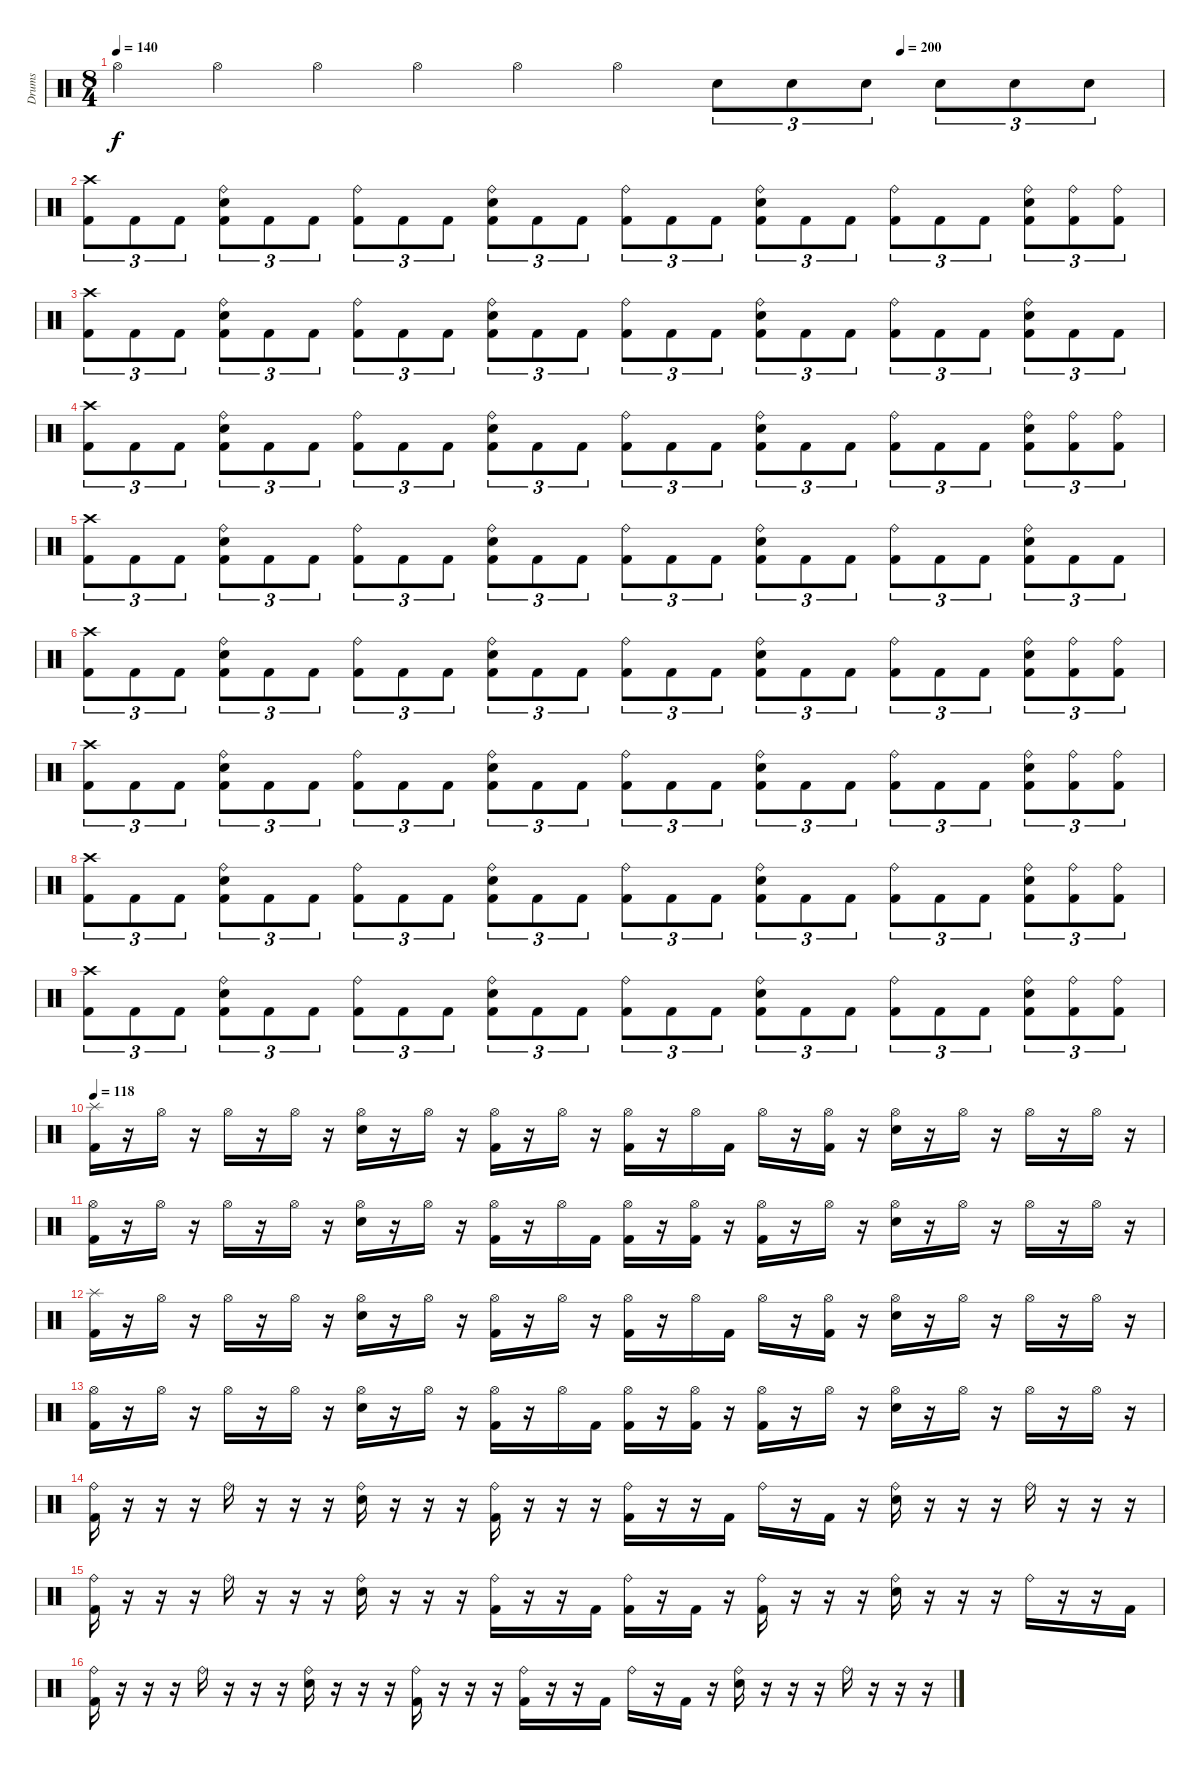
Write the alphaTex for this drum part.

\track ("Drums" "Drums") {instrument percussion}
\staff {score}
\articulation defaults
\ts (8 4)
\tempo 140
\tempo (200 0.75)
\clef neutral
\ks c "Hi-Hat (open)".4{dy f} "Hi-Hat (open)".4 "Hi-Hat (open)".4 "Hi-Hat (open)".4 "Hi-Hat (open)".4 "Hi-Hat (open)".4 "Electric Snare (hit)".8{tu (3 2)} "Electric Snare (hit)".8{tu (3 2)} "Electric Snare (hit)".8{tu (3 2)} "Electric Snare (hit)".8{tu (3 2)} "Electric Snare (hit)".8{tu (3 2)} "Electric Snare (hit)".8{tu (3 2)}
|
("Crash high (hit)" "Kick (hit) 2").8{tu (3 2)} "Kick (hit) 2".8{tu (3 2)} "Kick (hit) 2".8{tu (3 2)} ("Ride (bell)" "Electric Snare (hit)" "Kick (hit) 2").8{tu (3 2)} "Kick (hit) 2".8{tu (3 2)} "Kick (hit) 2".8{tu (3 2)} ("Ride (bell)" "Kick (hit) 2").8{tu (3 2)} "Kick (hit) 2".8{tu (3 2)} "Kick (hit) 2".8{tu (3 2)} ("Ride (bell)" "Electric Snare (hit)" "Kick (hit) 2").8{tu (3 2)} "Kick (hit) 2".8{tu (3 2)} "Kick (hit) 2".8{tu (3 2)} ("Ride (bell)" "Kick (hit) 2").8{tu (3 2)} "Kick (hit) 2".8{tu (3 2)} "Kick (hit) 2".8{tu (3 2)} ("Ride (bell)" "Electric Snare (hit)" "Kick (hit) 2").8{tu (3 2)} "Kick (hit) 2".8{tu (3 2)} "Kick (hit) 2".8{tu (3 2)} ("Ride (bell)" "Kick (hit) 2").8{tu (3 2)} "Kick (hit) 2".8{tu (3 2)} "Kick (hit) 2".8{tu (3 2)} ("Ride (bell)" "Electric Snare (hit)" "Kick (hit) 2").8{tu (3 2)} ("Ride (bell)" "Kick (hit) 2").8{tu (3 2)} ("Ride (bell)" "Kick (hit) 2").8{tu (3 2)} |
("Crash high (hit)" "Kick (hit) 2").8{tu (3 2)} "Kick (hit) 2".8{tu (3 2)} "Kick (hit) 2".8{tu (3 2)} ("Ride (bell)" "Electric Snare (hit)" "Kick (hit) 2").8{tu (3 2)} "Kick (hit) 2".8{tu (3 2)} "Kick (hit) 2".8{tu (3 2)} ("Ride (bell)" "Kick (hit) 2").8{tu (3 2)} "Kick (hit) 2".8{tu (3 2)} "Kick (hit) 2".8{tu (3 2)} ("Ride (bell)" "Electric Snare (hit)" "Kick (hit) 2").8{tu (3 2)} "Kick (hit) 2".8{tu (3 2)} "Kick (hit) 2".8{tu (3 2)} ("Ride (bell)" "Kick (hit) 2").8{tu (3 2)} "Kick (hit) 2".8{tu (3 2)} "Kick (hit) 2".8{tu (3 2)} ("Ride (bell)" "Electric Snare (hit)" "Kick (hit) 2").8{tu (3 2)} "Kick (hit) 2".8{tu (3 2)} "Kick (hit) 2".8{tu (3 2)} ("Ride (bell)" "Kick (hit) 2").8{tu (3 2)} "Kick (hit) 2".8{tu (3 2)} "Kick (hit) 2".8{tu (3 2)} ("Ride (bell)" "Electric Snare (hit)" "Kick (hit) 2").8{tu (3 2)} "Kick (hit) 2".8{tu (3 2)} "Kick (hit) 2".8{tu (3 2)} |
("Crash high (hit)" "Kick (hit) 2").8{tu (3 2)} "Kick (hit) 2".8{tu (3 2)} "Kick (hit) 2".8{tu (3 2)} ("Ride (bell)" "Electric Snare (hit)" "Kick (hit) 2").8{tu (3 2)} "Kick (hit) 2".8{tu (3 2)} "Kick (hit) 2".8{tu (3 2)} ("Ride (bell)" "Kick (hit) 2").8{tu (3 2)} "Kick (hit) 2".8{tu (3 2)} "Kick (hit) 2".8{tu (3 2)} ("Ride (bell)" "Electric Snare (hit)" "Kick (hit) 2").8{tu (3 2)} "Kick (hit) 2".8{tu (3 2)} "Kick (hit) 2".8{tu (3 2)} ("Ride (bell)" "Kick (hit) 2").8{tu (3 2)} "Kick (hit) 2".8{tu (3 2)} "Kick (hit) 2".8{tu (3 2)} ("Ride (bell)" "Electric Snare (hit)" "Kick (hit) 2").8{tu (3 2)} "Kick (hit) 2".8{tu (3 2)} "Kick (hit) 2".8{tu (3 2)} ("Ride (bell)" "Kick (hit) 2").8{tu (3 2)} "Kick (hit) 2".8{tu (3 2)} "Kick (hit) 2".8{tu (3 2)} ("Ride (bell)" "Electric Snare (hit)" "Kick (hit) 2").8{tu (3 2)} ("Ride (bell)" "Kick (hit) 2").8{tu (3 2)} ("Ride (bell)" "Kick (hit) 2").8{tu (3 2)} |
("Crash high (hit)" "Kick (hit) 2").8{tu (3 2)} "Kick (hit) 2".8{tu (3 2)} "Kick (hit) 2".8{tu (3 2)} ("Ride (bell)" "Electric Snare (hit)" "Kick (hit) 2").8{tu (3 2)} "Kick (hit) 2".8{tu (3 2)} "Kick (hit) 2".8{tu (3 2)} ("Ride (bell)" "Kick (hit) 2").8{tu (3 2)} "Kick (hit) 2".8{tu (3 2)} "Kick (hit) 2".8{tu (3 2)} ("Ride (bell)" "Electric Snare (hit)" "Kick (hit) 2").8{tu (3 2)} "Kick (hit) 2".8{tu (3 2)} "Kick (hit) 2".8{tu (3 2)} ("Ride (bell)" "Kick (hit) 2").8{tu (3 2)} "Kick (hit) 2".8{tu (3 2)} "Kick (hit) 2".8{tu (3 2)} ("Ride (bell)" "Electric Snare (hit)" "Kick (hit) 2").8{tu (3 2)} "Kick (hit) 2".8{tu (3 2)} "Kick (hit) 2".8{tu (3 2)} ("Ride (bell)" "Kick (hit) 2").8{tu (3 2)} "Kick (hit) 2".8{tu (3 2)} "Kick (hit) 2".8{tu (3 2)} ("Ride (bell)" "Electric Snare (hit)" "Kick (hit) 2").8{tu (3 2)} "Kick (hit) 2".8{tu (3 2)} "Kick (hit) 2".8{tu (3 2)} |
("Crash high (hit)" "Kick (hit) 2").8{tu (3 2)} "Kick (hit) 2".8{tu (3 2)} "Kick (hit) 2".8{tu (3 2)} ("Ride (bell)" "Electric Snare (hit)" "Kick (hit) 2").8{tu (3 2)} "Kick (hit) 2".8{tu (3 2)} "Kick (hit) 2".8{tu (3 2)} ("Ride (bell)" "Kick (hit) 2").8{tu (3 2)} "Kick (hit) 2".8{tu (3 2)} "Kick (hit) 2".8{tu (3 2)} ("Ride (bell)" "Electric Snare (hit)" "Kick (hit) 2").8{tu (3 2)} "Kick (hit) 2".8{tu (3 2)} "Kick (hit) 2".8{tu (3 2)} ("Ride (bell)" "Kick (hit) 2").8{tu (3 2)} "Kick (hit) 2".8{tu (3 2)} "Kick (hit) 2".8{tu (3 2)} ("Ride (bell)" "Electric Snare (hit)" "Kick (hit) 2").8{tu (3 2)} "Kick (hit) 2".8{tu (3 2)} "Kick (hit) 2".8{tu (3 2)} ("Ride (bell)" "Kick (hit) 2").8{tu (3 2)} "Kick (hit) 2".8{tu (3 2)} "Kick (hit) 2".8{tu (3 2)} ("Ride (bell)" "Electric Snare (hit)" "Kick (hit) 2").8{tu (3 2)} ("Ride (bell)" "Kick (hit) 2").8{tu (3 2)} ("Ride (bell)" "Kick (hit) 2").8{tu (3 2)} |
("Crash high (hit)" "Kick (hit) 2").8{tu (3 2)} "Kick (hit) 2".8{tu (3 2)} "Kick (hit) 2".8{tu (3 2)} ("Ride (bell)" "Electric Snare (hit)" "Kick (hit) 2").8{tu (3 2)} "Kick (hit) 2".8{tu (3 2)} "Kick (hit) 2".8{tu (3 2)} ("Ride (bell)" "Kick (hit) 2").8{tu (3 2)} "Kick (hit) 2".8{tu (3 2)} "Kick (hit) 2".8{tu (3 2)} ("Ride (bell)" "Electric Snare (hit)" "Kick (hit) 2").8{tu (3 2)} "Kick (hit) 2".8{tu (3 2)} "Kick (hit) 2".8{tu (3 2)} ("Ride (bell)" "Kick (hit) 2").8{tu (3 2)} "Kick (hit) 2".8{tu (3 2)} "Kick (hit) 2".8{tu (3 2)} ("Ride (bell)" "Electric Snare (hit)" "Kick (hit) 2").8{tu (3 2)} "Kick (hit) 2".8{tu (3 2)} "Kick (hit) 2".8{tu (3 2)} ("Ride (bell)" "Kick (hit) 2").8{tu (3 2)} "Kick (hit) 2".8{tu (3 2)} "Kick (hit) 2".8{tu (3 2)} ("Ride (bell)" "Electric Snare (hit)" "Kick (hit) 2").8{tu (3 2)} ("Ride (bell)" "Kick (hit) 2").8{tu (3 2)} ("Ride (bell)" "Kick (hit) 2").8{tu (3 2)} |
("Crash high (hit)" "Kick (hit) 2").8{tu (3 2)} "Kick (hit) 2".8{tu (3 2)} "Kick (hit) 2".8{tu (3 2)} ("Ride (bell)" "Electric Snare (hit)" "Kick (hit) 2").8{tu (3 2)} "Kick (hit) 2".8{tu (3 2)} "Kick (hit) 2".8{tu (3 2)} ("Ride (bell)" "Kick (hit) 2").8{tu (3 2)} "Kick (hit) 2".8{tu (3 2)} "Kick (hit) 2".8{tu (3 2)} ("Ride (bell)" "Electric Snare (hit)" "Kick (hit) 2").8{tu (3 2)} "Kick (hit) 2".8{tu (3 2)} "Kick (hit) 2".8{tu (3 2)} ("Ride (bell)" "Kick (hit) 2").8{tu (3 2)} "Kick (hit) 2".8{tu (3 2)} "Kick (hit) 2".8{tu (3 2)} ("Ride (bell)" "Electric Snare (hit)" "Kick (hit) 2").8{tu (3 2)} "Kick (hit) 2".8{tu (3 2)} "Kick (hit) 2".8{tu (3 2)} ("Ride (bell)" "Kick (hit) 2").8{tu (3 2)} "Kick (hit) 2".8{tu (3 2)} "Kick (hit) 2".8{tu (3 2)} ("Ride (bell)" "Electric Snare (hit)" "Kick (hit) 2").8{tu (3 2)} ("Ride (bell)" "Kick (hit) 2").8{tu (3 2)} ("Ride (bell)" "Kick (hit) 2").8{tu (3 2)} |
("Crash high (hit)" "Kick (hit) 2").8{tu (3 2)} "Kick (hit) 2".8{tu (3 2)} "Kick (hit) 2".8{tu (3 2)} ("Ride (bell)" "Electric Snare (hit)" "Kick (hit) 2").8{tu (3 2)} "Kick (hit) 2".8{tu (3 2)} "Kick (hit) 2".8{tu (3 2)} ("Ride (bell)" "Kick (hit) 2").8{tu (3 2)} "Kick (hit) 2".8{tu (3 2)} "Kick (hit) 2".8{tu (3 2)} ("Ride (bell)" "Electric Snare (hit)" "Kick (hit) 2").8{tu (3 2)} "Kick (hit) 2".8{tu (3 2)} "Kick (hit) 2".8{tu (3 2)} ("Ride (bell)" "Kick (hit) 2").8{tu (3 2)} "Kick (hit) 2".8{tu (3 2)} "Kick (hit) 2".8{tu (3 2)} ("Ride (bell)" "Electric Snare (hit)" "Kick (hit) 2").8{tu (3 2)} "Kick (hit) 2".8{tu (3 2)} "Kick (hit) 2".8{tu (3 2)} ("Ride (bell)" "Kick (hit) 2").8{tu (3 2)} "Kick (hit) 2".8{tu (3 2)} "Kick (hit) 2".8{tu (3 2)} ("Ride (bell)" "Electric Snare (hit)" "Kick (hit) 2").8{tu (3 2)} ("Ride (bell)" "Kick (hit) 2").8{tu (3 2)} ("Ride (bell)" "Kick (hit) 2").8{tu (3 2)} |
\tempo 118
("Splash (hit)" "Kick (hit) 2").16 r.16 "Hi-Hat (open)".16 r.16 "Hi-Hat (open)".16 r.16 "Hi-Hat (open)".16 r.16 ("Hi-Hat (open)" "Electric Snare (hit)").16 r.16 "Hi-Hat (open)".16 r.16 ("Hi-Hat (open)" "Kick (hit) 2").16 r.16 "Hi-Hat (open)".16 r.16 ("Hi-Hat (open)" "Kick (hit) 2").16 r.16 "Hi-Hat (open)".16 "Kick (hit) 2".16 "Hi-Hat (open)".16 r.16 ("Hi-Hat (open)" "Kick (hit) 2").16 r.16 ("Hi-Hat (open)" "Electric Snare (hit)").16 r.16 "Hi-Hat (open)".16 r.16 "Hi-Hat (open)".16 r.16 "Hi-Hat (open)".16 r.16 |
("Hi-Hat (open)" "Kick (hit) 2").16 r.16 "Hi-Hat (open)".16 r.16 "Hi-Hat (open)".16 r.16 "Hi-Hat (open)".16 r.16 ("Hi-Hat (open)" "Electric Snare (hit)").16 r.16 "Hi-Hat (open)".16 r.16 ("Hi-Hat (open)" "Kick (hit) 2").16 r.16 "Hi-Hat (open)".16 "Kick (hit) 2".16 ("Hi-Hat (open)" "Kick (hit) 2").16 r.16 ("Hi-Hat (open)" "Kick (hit) 2").16 r.16 ("Hi-Hat (open)" "Kick (hit) 2").16 r.16 "Hi-Hat (open)".16 r.16 ("Hi-Hat (open)" "Electric Snare (hit)").16 r.16 "Hi-Hat (open)".16 r.16 "Hi-Hat (open)".16 r.16 "Hi-Hat (open)".16 r.16 |
("Splash (hit)" "Kick (hit) 2").16 r.16 "Hi-Hat (open)".16 r.16 "Hi-Hat (open)".16 r.16 "Hi-Hat (open)".16 r.16 ("Hi-Hat (open)" "Electric Snare (hit)").16 r.16 "Hi-Hat (open)".16 r.16 ("Hi-Hat (open)" "Kick (hit) 2").16 r.16 "Hi-Hat (open)".16 r.16 ("Hi-Hat (open)" "Kick (hit) 2").16 r.16 "Hi-Hat (open)".16 "Kick (hit) 2".16 "Hi-Hat (open)".16 r.16 ("Hi-Hat (open)" "Kick (hit) 2").16 r.16 ("Hi-Hat (open)" "Electric Snare (hit)").16 r.16 "Hi-Hat (open)".16 r.16 "Hi-Hat (open)".16 r.16 "Hi-Hat (open)".16 r.16 |
("Hi-Hat (open)" "Kick (hit) 2").16 r.16 "Hi-Hat (open)".16 r.16 "Hi-Hat (open)".16 r.16 "Hi-Hat (open)".16 r.16 ("Hi-Hat (open)" "Electric Snare (hit)").16 r.16 "Hi-Hat (open)".16 r.16 ("Hi-Hat (open)" "Kick (hit) 2").16 r.16 "Hi-Hat (open)".16 "Kick (hit) 2".16 ("Hi-Hat (open)" "Kick (hit) 2").16 r.16 ("Hi-Hat (open)" "Kick (hit) 2").16 r.16 ("Hi-Hat (open)" "Kick (hit) 2").16 r.16 "Hi-Hat (open)".16 r.16 ("Hi-Hat (open)" "Electric Snare (hit)").16 r.16 "Hi-Hat (open)".16 r.16 "Hi-Hat (open)".16 r.16 "Hi-Hat (open)".16 r.16 |
("Ride (bell)" "Kick (hit) 2").16 r.16 r.16 r.16 "Ride (bell)".16 r.16 r.16 r.16 ("Ride (bell)" "Electric Snare (hit)").16 r.16 r.16 r.16 ("Ride (bell)" "Kick (hit) 2").16 r.16 r.16 r.16 ("Ride (bell)" "Kick (hit) 2").16 r.16 r.16 "Kick (hit) 2".16 "Ride (bell)".16 r.16 "Kick (hit) 2".16 r.16 ("Ride (bell)" "Electric Snare (hit)").16 r.16 r.16 r.16 "Ride (bell)".16 r.16 r.16 r.16 |
("Ride (bell)" "Kick (hit) 2").16 r.16 r.16 r.16 "Ride (bell)".16 r.16 r.16 r.16 ("Ride (bell)" "Electric Snare (hit)").16 r.16 r.16 r.16 ("Ride (bell)" "Kick (hit) 2").16 r.16 r.16 "Kick (hit) 2".16 ("Ride (bell)" "Kick (hit) 2").16 r.16 "Kick (hit) 2".16 r.16 ("Ride (bell)" "Kick (hit) 2").16 r.16 r.16 r.16 ("Ride (bell)" "Electric Snare (hit)").16 r.16 r.16 r.16 "Ride (bell)".16 r.16 r.16 "Kick (hit) 2".16 |
("Ride (bell)" "Kick (hit) 2").16 r.16 r.16 r.16 "Ride (bell)".16 r.16 r.16 r.16 ("Ride (bell)" "Electric Snare (hit)").16 r.16 r.16 r.16 ("Ride (bell)" "Kick (hit) 2").16 r.16 r.16 r.16 ("Ride (bell)" "Kick (hit) 2").16 r.16 r.16 "Kick (hit) 2".16 "Ride (bell)".16 r.16 "Kick (hit) 2".16 r.16 ("Ride (bell)" "Electric Snare (hit)").16 r.16 r.16 r.16 "Ride (bell)".16 r.16 r.16 r.16
